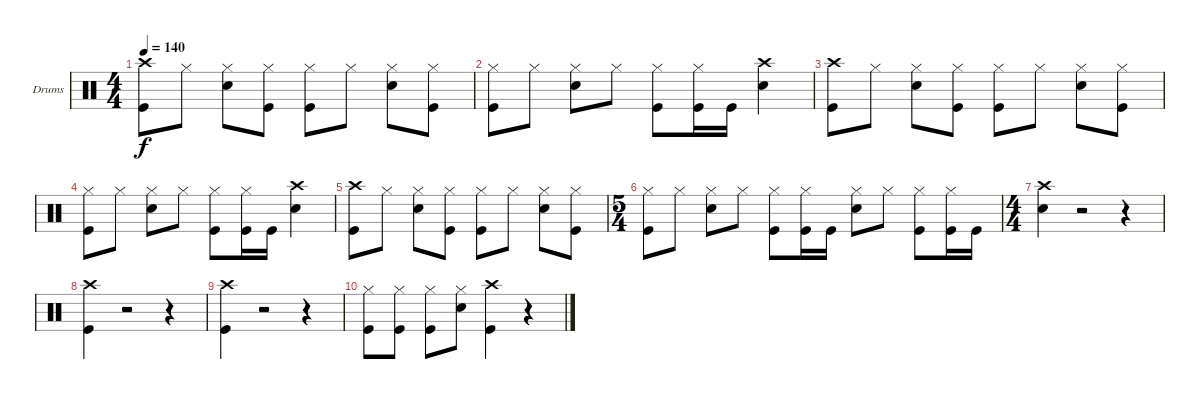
\defaultSystemsLayout 4
\bracketExtendMode groupsimilarinstruments
\firstSystemTrackNameOrientation horizontal
\otherSystemsTrackNameOrientation horizontal
\track ("Drums" "Drums") {instrument percussion}
\staff {score}
\articulation defaults
\ts (4 4)
\tempo 140
\clef neutral
\ks c
("Crash high (hit)" "Kick (hit)").8{dy f} "Hi-Hat (closed)".8 ("Snare (hit) 2" "Hi-Hat (closed)").8 ("Hi-Hat (closed)" "Kick (hit)").8 ("Hi-Hat (closed)" "Kick (hit)").8 "Hi-Hat (closed)".8 ("Snare (hit) 2" "Hi-Hat (closed)").8 ("Hi-Hat (closed)" "Kick (hit)").8 |
("Hi-Hat (closed)" "Kick (hit)").8 "Hi-Hat (closed)".8 ("Snare (hit) 2" "Hi-Hat (closed)").8 "Hi-Hat (closed)".8 ("Hi-Hat (closed)" "Kick (hit)").8 ("Hi-Hat (closed)" "Kick (hit)").16 "Kick (hit)".16 ("Crash high (hit)" "Snare (hit) 2").4 |
("Crash high (hit)" "Kick (hit)").8 "Hi-Hat (closed)".8 ("Snare (hit) 2" "Hi-Hat (closed)").8 ("Hi-Hat (closed)" "Kick (hit)").8 ("Hi-Hat (closed)" "Kick (hit)").8 "Hi-Hat (closed)".8 ("Snare (hit) 2" "Hi-Hat (closed)").8 ("Hi-Hat (closed)" "Kick (hit)").8 |
("Hi-Hat (closed)" "Kick (hit)").8 "Hi-Hat (closed)".8 ("Snare (hit) 2" "Hi-Hat (closed)").8 "Hi-Hat (closed)".8 ("Hi-Hat (closed)" "Kick (hit)").8 ("Hi-Hat (closed)" "Kick (hit)").16 "Kick (hit)".16 ("Crash high (hit)" "Snare (hit) 2").4 |
("Kick (hit)" "Crash high (hit)").8 "Hi-Hat (closed)".8 ("Snare (hit) 2" "Hi-Hat (closed)").8 ("Kick (hit)" "Hi-Hat (closed)").8 ("Kick (hit)" "Hi-Hat (closed)").8 "Hi-Hat (closed)".8 ("Snare (hit) 2" "Hi-Hat (closed)").8 ("Kick (hit)" "Hi-Hat (closed)").8 |
\ts (5 4)
("Hi-Hat (closed)" "Kick (hit)").8 "Hi-Hat (closed)".8 ("Snare (hit) 2" "Hi-Hat (closed)").8 "Hi-Hat (closed)".8 ("Hi-Hat (closed)" "Kick (hit)").8 ("Hi-Hat (closed)" "Kick (hit)").16 "Kick (hit)".16 ("Snare (hit) 2" "Hi-Hat (closed)").8 "Hi-Hat (closed)".8 ("Hi-Hat (closed)" "Kick (hit)").8 ("Hi-Hat (closed)" "Kick (hit)").16 "Kick (hit)".16 |
\ts (4 4)
("Snare (hit) 2" "Crash high (hit)").4 r.2 r.4 |
("Kick (hit)" "Crash high (hit)").4 r.2 r.4 |
("Crash high (hit)" "Kick (hit)").4 r.2 r.4 |
("Hi-Hat (closed)" "Kick (hit)").8 ("Hi-Hat (closed)" "Kick (hit)").8 ("Hi-Hat (closed)" "Kick (hit)").8 ("Snare (hit) 2" "Hi-Hat (closed)").8 ("Kick (hit)" "Crash high (hit)").4 r.4
